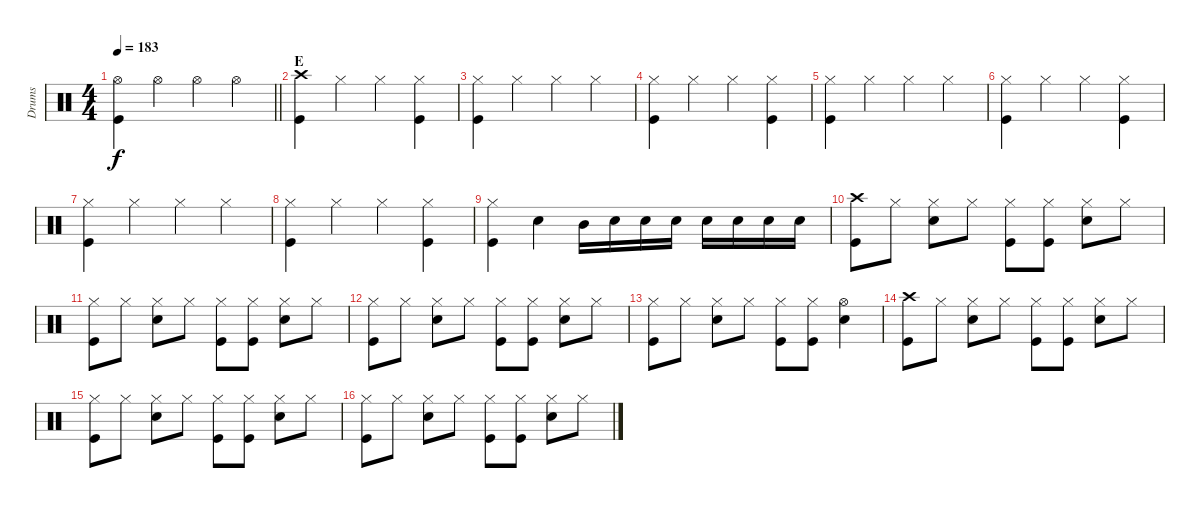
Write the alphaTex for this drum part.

\track ("Drums" "Drums") {instrument percussion}
\staff {score}
\articulation defaults
\ts (4 4)
\tempo 183
\clef neutral
\barLineRight lightlight
\ks c
("Hi-Hat (open)" "Kick (hit)").4{dy f} "Hi-Hat (open)".4 "Hi-Hat (open)".4 "Hi-Hat (open)".4 |
\section ("" "E")
("Crash high (hit)" "Kick (hit)").4 "Hi-Hat (closed)".4 "Hi-Hat (closed)".4 ("Hi-Hat (closed)" "Kick (hit)").4 |
("Hi-Hat (closed)" "Kick (hit)").4 "Hi-Hat (closed)".4 "Hi-Hat (closed)".4 "Hi-Hat (closed)".4 |
("Hi-Hat (closed)" "Kick (hit)").4 "Hi-Hat (closed)".4 "Hi-Hat (closed)".4 ("Hi-Hat (closed)" "Kick (hit)").4 |
("Hi-Hat (closed)" "Kick (hit)").4 "Hi-Hat (closed)".4 "Hi-Hat (closed)".4 "Hi-Hat (closed)".4 |
("Hi-Hat (closed)" "Kick (hit)").4 "Hi-Hat (closed)".4 "Hi-Hat (closed)".4 ("Hi-Hat (closed)" "Kick (hit)").4 |
("Hi-Hat (closed)" "Kick (hit)").4 "Hi-Hat (closed)".4 "Hi-Hat (closed)".4 "Hi-Hat (closed)".4 |
("Hi-Hat (closed)" "Kick (hit)").4 "Hi-Hat (closed)".4 "Hi-Hat (closed)".4 ("Hi-Hat (closed)" "Kick (hit)").4 |
("Hi-Hat (closed)" "Kick (hit)").4 "Electric Snare (hit)".4 "Mid Tom (hit)".16 "Electric Snare (hit)".16 "Electric Snare (hit)".16 "Electric Snare (hit)".16 "Electric Snare (hit)".16 "Electric Snare (hit)".16 "Electric Snare (hit)".16 "Electric Snare (hit)".16 |
("Crash high (hit)" "Kick (hit)").8 "Hi-Hat (closed)".8 ("Hi-Hat (closed)" "Electric Snare (hit)").8 "Hi-Hat (closed)".8 ("Hi-Hat (closed)" "Kick (hit)").8 ("Hi-Hat (closed)" "Kick (hit)").8 ("Hi-Hat (closed)" "Electric Snare (hit)").8 "Hi-Hat (closed)".8 |
("Hi-Hat (closed)" "Kick (hit)").8 "Hi-Hat (closed)".8 ("Hi-Hat (closed)" "Electric Snare (hit)").8 "Hi-Hat (closed)".8 ("Hi-Hat (closed)" "Kick (hit)").8 ("Hi-Hat (closed)" "Kick (hit)").8 ("Hi-Hat (closed)" "Electric Snare (hit)").8 "Hi-Hat (closed)".8 |
("Hi-Hat (closed)" "Kick (hit)").8 "Hi-Hat (closed)".8 ("Hi-Hat (closed)" "Electric Snare (hit)").8 "Hi-Hat (closed)".8 ("Hi-Hat (closed)" "Kick (hit)").8 ("Hi-Hat (closed)" "Kick (hit)").8 ("Hi-Hat (closed)" "Electric Snare (hit)").8 "Hi-Hat (closed)".8 |
("Hi-Hat (closed)" "Kick (hit)").8 "Hi-Hat (closed)".8 ("Hi-Hat (closed)" "Electric Snare (hit)").8 "Hi-Hat (closed)".8 ("Hi-Hat (closed)" "Kick (hit)").8 ("Hi-Hat (closed)" "Kick (hit)").8 ("Hi-Hat (open)" "Electric Snare (hit)").4 |
("Crash high (hit)" "Kick (hit)").8 "Hi-Hat (closed)".8 ("Hi-Hat (closed)" "Electric Snare (hit)").8 "Hi-Hat (closed)".8 ("Hi-Hat (closed)" "Kick (hit)").8 ("Hi-Hat (closed)" "Kick (hit)").8 ("Hi-Hat (closed)" "Electric Snare (hit)").8 "Hi-Hat (closed)".8 |
("Hi-Hat (closed)" "Kick (hit)").8 "Hi-Hat (closed)".8 ("Hi-Hat (closed)" "Electric Snare (hit)").8 "Hi-Hat (closed)".8 ("Hi-Hat (closed)" "Kick (hit)").8 ("Hi-Hat (closed)" "Kick (hit)").8 ("Hi-Hat (closed)" "Electric Snare (hit)").8 "Hi-Hat (closed)".8 |
("Hi-Hat (closed)" "Kick (hit)").8 "Hi-Hat (closed)".8 ("Hi-Hat (closed)" "Electric Snare (hit)").8 "Hi-Hat (closed)".8 ("Hi-Hat (closed)" "Kick (hit)").8 ("Hi-Hat (closed)" "Kick (hit)").8 ("Hi-Hat (closed)" "Electric Snare (hit)").8 "Hi-Hat (closed)".8
